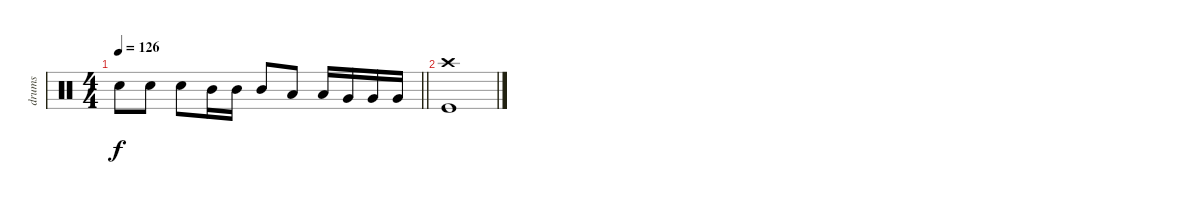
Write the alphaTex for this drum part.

\track ("drums" "drums") {instrument percussion}
\staff {score}
\articulation defaults
\ts (4 4)
\tempo 126
\clef neutral
\barLineRight lightlight
\ks c "Electric Snare (hit)".8{dy f} "Electric Snare (hit)".8 "Electric Snare (hit)".8 "Mid Tom (hit)".16 "Mid Tom (hit)".16 "Mid Tom (hit)".8 "Low Tom (hit)".8 "Low Tom (hit)".16 "Very Low Tom (hit)".16 "Very Low Tom (hit)".16 "Very Low Tom (hit)".16
|
("Kick (hit)" "Crash high (hit)").1
